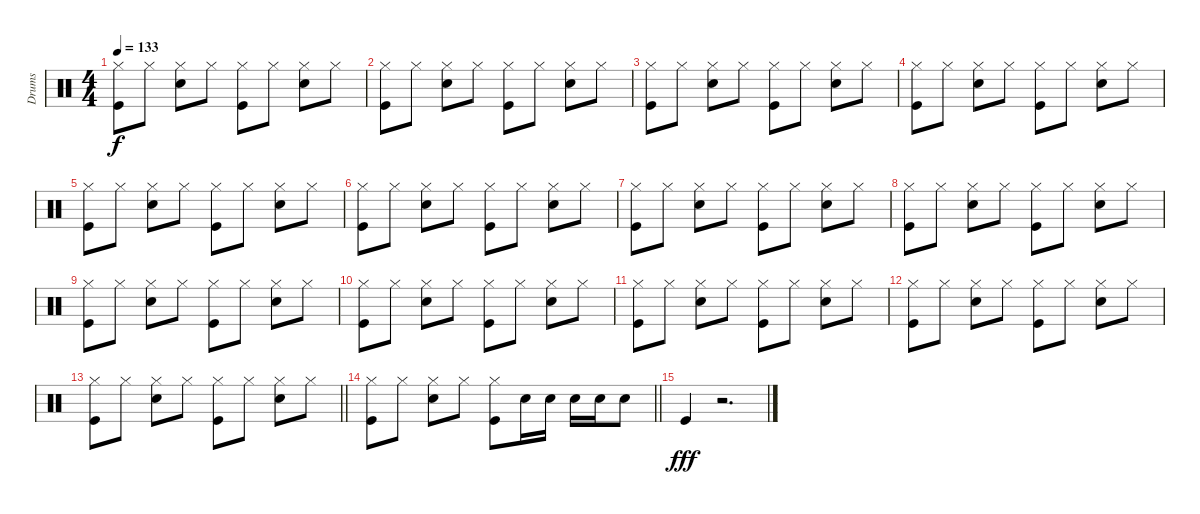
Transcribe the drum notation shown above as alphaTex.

\track ("Drums" "Drums") {instrument percussion}
\staff {score}
\articulation defaults
\ts (4 4)
\tempo 133
\clef neutral
\ks c
("Hi-Hat (closed)" "Kick (hit)").8{dy f} "Hi-Hat (closed)".8 ("Hi-Hat (closed)" "Snare (hit) 2").8 "Hi-Hat (closed)".8 ("Hi-Hat (closed)" "Kick (hit)").8 "Hi-Hat (closed)".8 ("Hi-Hat (closed)" "Snare (hit) 2").8 "Hi-Hat (closed)".8 |
("Hi-Hat (closed)" "Kick (hit)").8 "Hi-Hat (closed)".8 ("Hi-Hat (closed)" "Snare (hit) 2").8 "Hi-Hat (closed)".8 ("Hi-Hat (closed)" "Kick (hit)").8 "Hi-Hat (closed)".8 ("Hi-Hat (closed)" "Snare (hit) 2").8 "Hi-Hat (closed)".8 |
("Hi-Hat (closed)" "Kick (hit)").8 "Hi-Hat (closed)".8 ("Hi-Hat (closed)" "Snare (hit) 2").8 "Hi-Hat (closed)".8 ("Hi-Hat (closed)" "Kick (hit)").8 "Hi-Hat (closed)".8 ("Hi-Hat (closed)" "Snare (hit) 2").8 "Hi-Hat (closed)".8 |
("Hi-Hat (closed)" "Kick (hit)").8 "Hi-Hat (closed)".8 ("Hi-Hat (closed)" "Snare (hit) 2").8 "Hi-Hat (closed)".8 ("Hi-Hat (closed)" "Kick (hit)").8 "Hi-Hat (closed)".8 ("Hi-Hat (closed)" "Snare (hit) 2").8 "Hi-Hat (closed)".8 |
("Hi-Hat (closed)" "Kick (hit)").8 "Hi-Hat (closed)".8 ("Hi-Hat (closed)" "Snare (hit) 2").8 "Hi-Hat (closed)".8 ("Hi-Hat (closed)" "Kick (hit)").8 "Hi-Hat (closed)".8 ("Hi-Hat (closed)" "Snare (hit) 2").8 "Hi-Hat (closed)".8 |
("Hi-Hat (closed)" "Kick (hit)").8 "Hi-Hat (closed)".8 ("Hi-Hat (closed)" "Snare (hit) 2").8 "Hi-Hat (closed)".8 ("Hi-Hat (closed)" "Kick (hit)").8 "Hi-Hat (closed)".8 ("Hi-Hat (closed)" "Snare (hit) 2").8 "Hi-Hat (closed)".8 |
("Hi-Hat (closed)" "Kick (hit)").8 "Hi-Hat (closed)".8 ("Hi-Hat (closed)" "Snare (hit) 2").8 "Hi-Hat (closed)".8 ("Hi-Hat (closed)" "Kick (hit)").8 "Hi-Hat (closed)".8 ("Hi-Hat (closed)" "Snare (hit) 2").8 "Hi-Hat (closed)".8 |
("Hi-Hat (closed)" "Kick (hit)").8 "Hi-Hat (closed)".8 ("Hi-Hat (closed)" "Snare (hit) 2").8 "Hi-Hat (closed)".8 ("Hi-Hat (closed)" "Kick (hit)").8 "Hi-Hat (closed)".8 ("Hi-Hat (closed)" "Snare (hit) 2").8 "Hi-Hat (closed)".8 |
("Hi-Hat (closed)" "Kick (hit)").8 "Hi-Hat (closed)".8 ("Hi-Hat (closed)" "Snare (hit) 2").8 "Hi-Hat (closed)".8 ("Hi-Hat (closed)" "Kick (hit)").8 "Hi-Hat (closed)".8 ("Hi-Hat (closed)" "Snare (hit) 2").8 "Hi-Hat (closed)".8 |
("Hi-Hat (closed)" "Kick (hit)").8 "Hi-Hat (closed)".8 ("Hi-Hat (closed)" "Snare (hit) 2").8 "Hi-Hat (closed)".8 ("Hi-Hat (closed)" "Kick (hit)").8 "Hi-Hat (closed)".8 ("Hi-Hat (closed)" "Snare (hit) 2").8 "Hi-Hat (closed)".8 |
("Hi-Hat (closed)" "Kick (hit)").8 "Hi-Hat (closed)".8 ("Hi-Hat (closed)" "Snare (hit) 2").8 "Hi-Hat (closed)".8 ("Hi-Hat (closed)" "Kick (hit)").8 "Hi-Hat (closed)".8 ("Hi-Hat (closed)" "Snare (hit) 2").8 "Hi-Hat (closed)".8 |
("Hi-Hat (closed)" "Kick (hit)").8 "Hi-Hat (closed)".8 ("Hi-Hat (closed)" "Snare (hit) 2").8 "Hi-Hat (closed)".8 ("Hi-Hat (closed)" "Kick (hit)").8 "Hi-Hat (closed)".8 ("Hi-Hat (closed)" "Snare (hit) 2").8 "Hi-Hat (closed)".8 |
\barLineRight lightlight
("Hi-Hat (closed)" "Kick (hit)").8 "Hi-Hat (closed)".8 ("Hi-Hat (closed)" "Snare (hit) 2").8 "Hi-Hat (closed)".8 ("Hi-Hat (closed)" "Kick (hit)").8 "Hi-Hat (closed)".8 ("Hi-Hat (closed)" "Snare (hit) 2").8 "Hi-Hat (closed)".8 |
\barLineRight lightlight
("Hi-Hat (closed)" "Kick (hit)").8 "Hi-Hat (closed)".8 ("Hi-Hat (closed)" "Snare (hit) 2").8 "Hi-Hat (closed)".8 ("Hi-Hat (closed)" "Kick (hit)").8 "Snare (hit) 2".16 "Snare (hit) 2".16 "Snare (hit) 2".16 "Snare (hit) 2".16 "Snare (hit) 2".8 |
"Kick (hit)".4{dy fff} r.2{d}
